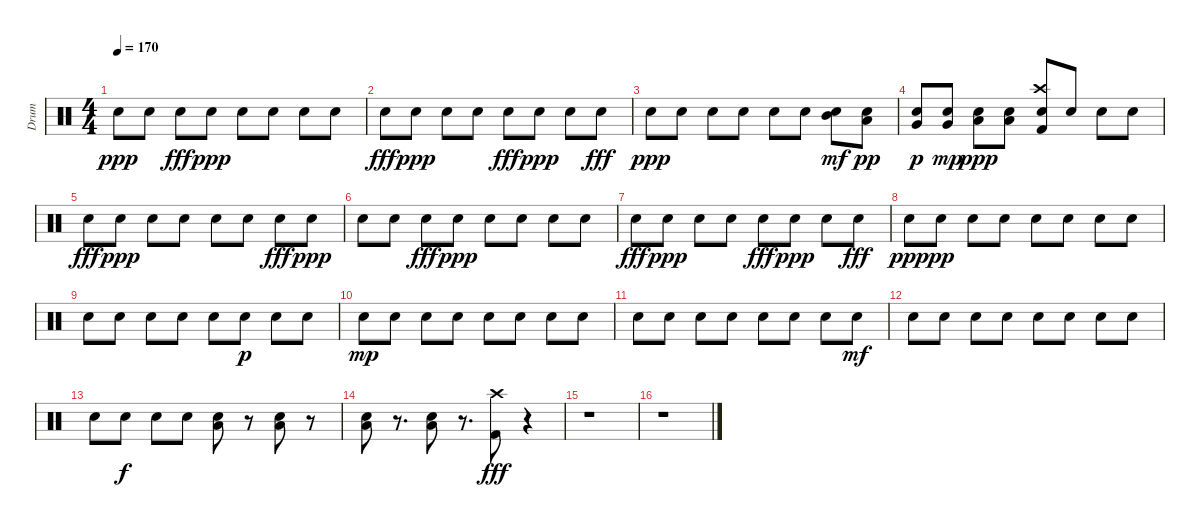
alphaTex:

\track ("Drum" "Drum") {instrument percussion}
\staff {score}
\articulation defaults
\ts (4 4)
\tempo 170
\clef neutral
\ks c "Snare (hit) 2".8{dy ppp} "Snare (hit) 2".8 "Snare (hit) 2".8{dy fff} "Snare (hit) 2".8{dy ppp} "Snare (hit) 2".8 "Snare (hit) 2".8 "Snare (hit) 2".8 "Snare (hit) 2".8
|
"Snare (hit) 2".8{dy fff} "Snare (hit) 2".8{dy ppp} "Snare (hit) 2".8 "Snare (hit) 2".8 "Snare (hit) 2".8{dy fff} "Snare (hit) 2".8{dy ppp} "Snare (hit) 2".8 "Snare (hit) 2".8{dy fff} |
"Snare (hit) 2".8{dy ppp} "Snare (hit) 2".8 "Snare (hit) 2".8 "Snare (hit) 2".8 "Snare (hit) 2".8 "Snare (hit) 2".8 ("Snare (hit) 2" "Mid Tom (hit)").8{dy mf} ("Snare (hit) 2" "Low Tom (hit)").8{dy pp} |
("Snare (hit) 2" "Very Low Tom (hit)").8{dy p} ("Snare (hit) 2" "Very Low Tom (hit)").8{dy mp} ("Low Floor Tom (hit)" "Snare (hit) 2").8{dy ppp} ("Low Floor Tom (hit)" "Snare (hit) 2").8 ("Snare (hit) 2" "Crash high (hit)" "Kick (hit) 2").8 "Snare (hit) 2".8 "Snare (hit) 2".8 "Snare (hit) 2".8 |
"Snare (hit) 2".8{dy fff} "Snare (hit) 2".8{dy ppp} "Snare (hit) 2".8 "Snare (hit) 2".8 "Snare (hit) 2".8 "Snare (hit) 2".8 "Snare (hit) 2".8{dy fff} "Snare (hit) 2".8{dy ppp} |
"Snare (hit) 2".8 "Snare (hit) 2".8 "Snare (hit) 2".8{dy fff} "Snare (hit) 2".8{dy ppp} "Snare (hit) 2".8 "Snare (hit) 2".8 "Snare (hit) 2".8 "Snare (hit) 2".8 |
"Snare (hit) 2".8{dy fff} "Snare (hit) 2".8{dy ppp} "Snare (hit) 2".8 "Snare (hit) 2".8 "Snare (hit) 2".8{dy fff} "Snare (hit) 2".8{dy ppp} "Snare (hit) 2".8 "Snare (hit) 2".8{dy fff} |
"Snare (hit) 2".8{dy ppp} "Snare (hit) 2".8{dy pp} "Snare (hit) 2".8 "Snare (hit) 2".8 "Snare (hit) 2".8 "Snare (hit) 2".8 "Snare (hit) 2".8 "Snare (hit) 2".8 |
"Snare (hit) 2".8 "Snare (hit) 2".8 "Snare (hit) 2".8 "Snare (hit) 2".8 "Snare (hit) 2".8 "Snare (hit) 2".8{dy p} "Snare (hit) 2".8 "Snare (hit) 2".8 |
"Snare (hit) 2".8{dy mp} "Snare (hit) 2".8 "Snare (hit) 2".8 "Snare (hit) 2".8 "Snare (hit) 2".8 "Snare (hit) 2".8 "Snare (hit) 2".8 "Snare (hit) 2".8 |
"Snare (hit) 2".8 "Snare (hit) 2".8 "Snare (hit) 2".8 "Snare (hit) 2".8 "Snare (hit) 2".8 "Snare (hit) 2".8 "Snare (hit) 2".8 "Snare (hit) 2".8{dy mf} |
"Snare (hit) 2".8 "Snare (hit) 2".8 "Snare (hit) 2".8 "Snare (hit) 2".8 "Snare (hit) 2".8 "Snare (hit) 2".8 "Snare (hit) 2".8 "Snare (hit) 2".8 |
"Snare (hit) 2".8 "Snare (hit) 2".8{dy f} "Snare (hit) 2".8 "Snare (hit) 2".8 ("Snare (hit) 2" "Low Floor Tom (hit)").8 r.8 ("Snare (hit) 2" "Low Floor Tom (hit)").8 r.8 |
("Snare (hit) 2" "Low Floor Tom (hit)").8 r.8{d} ("Snare (hit) 2" "Low Floor Tom (hit)").8 r.8{d} ("Kick (hit) 2" "Crash high (hit)").8{dy fff} r.4 |
r.1 |
r.1
